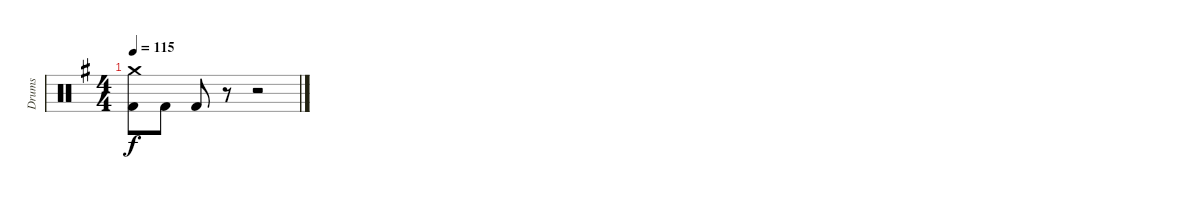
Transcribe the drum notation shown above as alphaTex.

\track ("Drums" "Drums") {instrument percussion}
\staff {score}
\articulation defaults
\ts (4 4)
\tempo 115
\clef neutral
\ks g
("Crash medium (hit)" "Kick (hit) 2").8{dy f} "Kick (hit) 2".8 "Kick (hit) 2".8 r.8 r.2
